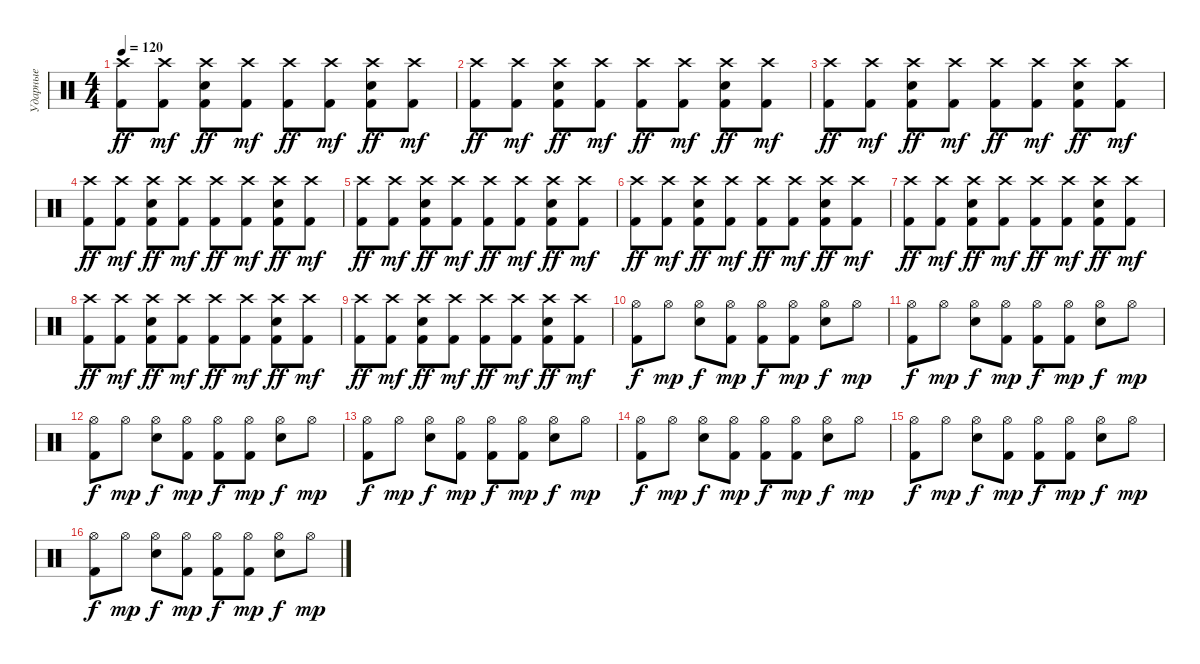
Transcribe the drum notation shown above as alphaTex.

\track ("Ударные" "Ударные") {instrument percussion}
\staff {score}
\articulation defaults
\ts (4 4)
\tempo 120
\clef neutral
\ks c
("Crash high (hit)" "Kick (hit) 2").8{dy ff} ("Crash high (hit)" "Kick (hit) 2").8{dy mf} ("Crash high (hit)" "Electric Snare (hit)" "Kick (hit) 2").8{dy ff} ("Crash high (hit)" "Kick (hit) 2").8{dy mf} ("Crash high (hit)" "Kick (hit) 2").8{dy ff} ("Crash high (hit)" "Kick (hit) 2").8{dy mf} ("Crash high (hit)" "Electric Snare (hit)" "Kick (hit) 2").8{dy ff} ("Crash high (hit)" "Kick (hit) 2").8{dy mf} |
("Crash high (hit)" "Kick (hit) 2").8{dy ff} ("Crash high (hit)" "Kick (hit) 2").8{dy mf} ("Crash high (hit)" "Electric Snare (hit)" "Kick (hit) 2").8{dy ff} ("Crash high (hit)" "Kick (hit) 2").8{dy mf} ("Crash high (hit)" "Kick (hit) 2").8{dy ff} ("Crash high (hit)" "Kick (hit) 2").8{dy mf} ("Crash high (hit)" "Electric Snare (hit)" "Kick (hit) 2").8{dy ff} ("Crash high (hit)" "Kick (hit) 2").8{dy mf} |
("Crash high (hit)" "Kick (hit) 2").8{dy ff} ("Crash high (hit)" "Kick (hit) 2").8{dy mf} ("Crash high (hit)" "Electric Snare (hit)" "Kick (hit) 2").8{dy ff} ("Crash high (hit)" "Kick (hit) 2").8{dy mf} ("Crash high (hit)" "Kick (hit) 2").8{dy ff} ("Crash high (hit)" "Kick (hit) 2").8{dy mf} ("Crash high (hit)" "Electric Snare (hit)" "Kick (hit) 2").8{dy ff} ("Crash high (hit)" "Kick (hit) 2").8{dy mf} |
("Crash high (hit)" "Kick (hit) 2").8{dy ff} ("Crash high (hit)" "Kick (hit) 2").8{dy mf} ("Crash high (hit)" "Electric Snare (hit)" "Kick (hit) 2").8{dy ff} ("Crash high (hit)" "Kick (hit) 2").8{dy mf} ("Crash high (hit)" "Kick (hit) 2").8{dy ff} ("Crash high (hit)" "Kick (hit) 2").8{dy mf} ("Crash high (hit)" "Electric Snare (hit)" "Kick (hit) 2").8{dy ff} ("Crash high (hit)" "Kick (hit) 2").8{dy mf} |
("Crash high (hit)" "Kick (hit) 2").8{dy ff} ("Crash high (hit)" "Kick (hit) 2").8{dy mf} ("Crash high (hit)" "Electric Snare (hit)" "Kick (hit) 2").8{dy ff} ("Crash high (hit)" "Kick (hit) 2").8{dy mf} ("Crash high (hit)" "Kick (hit) 2").8{dy ff} ("Crash high (hit)" "Kick (hit) 2").8{dy mf} ("Crash high (hit)" "Electric Snare (hit)" "Kick (hit) 2").8{dy ff} ("Crash high (hit)" "Kick (hit) 2").8{dy mf} |
("Crash high (hit)" "Kick (hit) 2").8{dy ff} ("Crash high (hit)" "Kick (hit) 2").8{dy mf} ("Crash high (hit)" "Electric Snare (hit)" "Kick (hit) 2").8{dy ff} ("Crash high (hit)" "Kick (hit) 2").8{dy mf} ("Crash high (hit)" "Kick (hit) 2").8{dy ff} ("Crash high (hit)" "Kick (hit) 2").8{dy mf} ("Crash high (hit)" "Electric Snare (hit)" "Kick (hit) 2").8{dy ff} ("Crash high (hit)" "Kick (hit) 2").8{dy mf} |
("Crash high (hit)" "Kick (hit) 2").8{dy ff} ("Crash high (hit)" "Kick (hit) 2").8{dy mf} ("Crash high (hit)" "Electric Snare (hit)" "Kick (hit) 2").8{dy ff} ("Crash high (hit)" "Kick (hit) 2").8{dy mf} ("Crash high (hit)" "Kick (hit) 2").8{dy ff} ("Crash high (hit)" "Kick (hit) 2").8{dy mf} ("Crash high (hit)" "Electric Snare (hit)" "Kick (hit) 2").8{dy ff} ("Crash high (hit)" "Kick (hit) 2").8{dy mf} |
("Crash high (hit)" "Kick (hit) 2").8{dy ff} ("Crash high (hit)" "Kick (hit) 2").8{dy mf} ("Crash high (hit)" "Electric Snare (hit)" "Kick (hit) 2").8{dy ff} ("Crash high (hit)" "Kick (hit) 2").8{dy mf} ("Crash high (hit)" "Kick (hit) 2").8{dy ff} ("Crash high (hit)" "Kick (hit) 2").8{dy mf} ("Crash high (hit)" "Electric Snare (hit)" "Kick (hit) 2").8{dy ff} ("Crash high (hit)" "Kick (hit) 2").8{dy mf} |
("Crash high (hit)" "Kick (hit) 2").8{dy ff} ("Crash high (hit)" "Kick (hit) 2").8{dy mf} ("Crash high (hit)" "Electric Snare (hit)" "Kick (hit) 2").8{dy ff} ("Crash high (hit)" "Kick (hit) 2").8{dy mf} ("Crash high (hit)" "Kick (hit) 2").8{dy ff} ("Crash high (hit)" "Kick (hit) 2").8{dy mf} ("Crash high (hit)" "Electric Snare (hit)" "Kick (hit) 2").8{dy ff} ("Crash high (hit)" "Kick (hit) 2").8{dy mf} |
("Hi-Hat (open)" "Kick (hit) 2").8{dy f} "Hi-Hat (open)".8{dy mp} ("Hi-Hat (open)" "Snare (hit) 2").8{dy f} ("Hi-Hat (open)" "Kick (hit) 2").8{dy mp} ("Hi-Hat (open)" "Kick (hit) 2").8{dy f} ("Hi-Hat (open)" "Kick (hit) 2").8{dy mp} ("Hi-Hat (open)" "Snare (hit) 2").8{dy f} "Hi-Hat (open)".8{dy mp} |
("Hi-Hat (open)" "Kick (hit) 2").8{dy f} "Hi-Hat (open)".8{dy mp} ("Hi-Hat (open)" "Snare (hit) 2").8{dy f} ("Hi-Hat (open)" "Kick (hit) 2").8{dy mp} ("Hi-Hat (open)" "Kick (hit) 2").8{dy f} ("Hi-Hat (open)" "Kick (hit) 2").8{dy mp} ("Hi-Hat (open)" "Snare (hit) 2").8{dy f} "Hi-Hat (open)".8{dy mp} |
("Hi-Hat (open)" "Kick (hit) 2").8{dy f} "Hi-Hat (open)".8{dy mp} ("Hi-Hat (open)" "Snare (hit) 2").8{dy f} ("Hi-Hat (open)" "Kick (hit) 2").8{dy mp} ("Hi-Hat (open)" "Kick (hit) 2").8{dy f} ("Hi-Hat (open)" "Kick (hit) 2").8{dy mp} ("Hi-Hat (open)" "Snare (hit) 2").8{dy f} "Hi-Hat (open)".8{dy mp} |
("Hi-Hat (open)" "Kick (hit) 2").8{dy f} "Hi-Hat (open)".8{dy mp} ("Hi-Hat (open)" "Snare (hit) 2").8{dy f} ("Hi-Hat (open)" "Kick (hit) 2").8{dy mp} ("Hi-Hat (open)" "Kick (hit) 2").8{dy f} ("Hi-Hat (open)" "Kick (hit) 2").8{dy mp} ("Hi-Hat (open)" "Snare (hit) 2").8{dy f} "Hi-Hat (open)".8{dy mp} |
("Hi-Hat (open)" "Kick (hit) 2").8{dy f} "Hi-Hat (open)".8{dy mp} ("Hi-Hat (open)" "Snare (hit) 2").8{dy f} ("Hi-Hat (open)" "Kick (hit) 2").8{dy mp} ("Hi-Hat (open)" "Kick (hit) 2").8{dy f} ("Hi-Hat (open)" "Kick (hit) 2").8{dy mp} ("Hi-Hat (open)" "Snare (hit) 2").8{dy f} "Hi-Hat (open)".8{dy mp} |
("Hi-Hat (open)" "Kick (hit) 2").8{dy f} "Hi-Hat (open)".8{dy mp} ("Hi-Hat (open)" "Snare (hit) 2").8{dy f} ("Hi-Hat (open)" "Kick (hit) 2").8{dy mp} ("Hi-Hat (open)" "Kick (hit) 2").8{dy f} ("Hi-Hat (open)" "Kick (hit) 2").8{dy mp} ("Hi-Hat (open)" "Snare (hit) 2").8{dy f} "Hi-Hat (open)".8{dy mp} |
("Hi-Hat (open)" "Kick (hit) 2").8{dy f} "Hi-Hat (open)".8{dy mp} ("Hi-Hat (open)" "Snare (hit) 2").8{dy f} ("Hi-Hat (open)" "Kick (hit) 2").8{dy mp} ("Hi-Hat (open)" "Kick (hit) 2").8{dy f} ("Hi-Hat (open)" "Kick (hit) 2").8{dy mp} ("Hi-Hat (open)" "Snare (hit) 2").8{dy f} "Hi-Hat (open)".8{dy mp}
